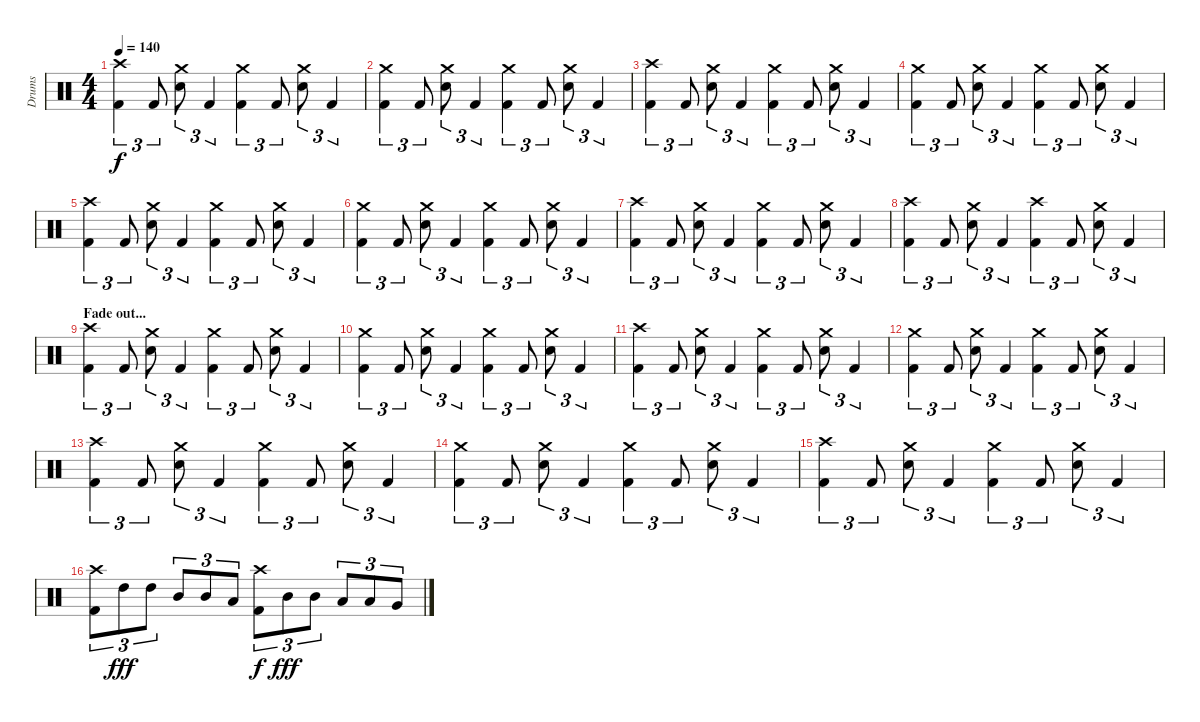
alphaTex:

\track ("Drums" "Drums") {instrument percussion}
\staff {score}
\articulation defaults
\ts (4 4)
\tempo 140
\clef neutral
\ks c
("Kick (hit) 2" "Crash high (hit)").4{tu (3 2) dy f} "Kick (hit) 2".8{tu (3 2)} ("Electric Snare (hit)" "Crash medium (hit)").8{tu (3 2)} "Kick (hit) 2".4{tu (3 2)} ("Kick (hit) 2" "Crash medium (hit)").4{tu (3 2)} "Kick (hit) 2".8{tu (3 2)} ("Electric Snare (hit)" "Crash medium (hit)").8{tu (3 2)} "Kick (hit) 2".4{tu (3 2)} |
("Kick (hit) 2" "Crash medium (hit)").4{tu (3 2)} "Kick (hit) 2".8{tu (3 2)} ("Electric Snare (hit)" "Crash medium (hit)").8{tu (3 2)} "Kick (hit) 2".4{tu (3 2)} ("Kick (hit) 2" "Crash medium (hit)").4{tu (3 2)} "Kick (hit) 2".8{tu (3 2)} ("Electric Snare (hit)" "Crash medium (hit)").8{tu (3 2)} "Kick (hit) 2".4{tu (3 2)} |
("Kick (hit) 2" "Crash high (hit)").4{tu (3 2)} "Kick (hit) 2".8{tu (3 2)} ("Electric Snare (hit)" "Crash medium (hit)").8{tu (3 2)} "Kick (hit) 2".4{tu (3 2)} ("Kick (hit) 2" "Crash medium (hit)").4{tu (3 2)} "Kick (hit) 2".8{tu (3 2)} ("Electric Snare (hit)" "Crash medium (hit)").8{tu (3 2)} "Kick (hit) 2".4{tu (3 2)} |
("Kick (hit) 2" "Crash medium (hit)").4{tu (3 2)} "Kick (hit) 2".8{tu (3 2)} ("Electric Snare (hit)" "Crash medium (hit)").8{tu (3 2)} "Kick (hit) 2".4{tu (3 2)} ("Kick (hit) 2" "Crash medium (hit)").4{tu (3 2)} "Kick (hit) 2".8{tu (3 2)} ("Electric Snare (hit)" "Crash medium (hit)").8{tu (3 2)} "Kick (hit) 2".4{tu (3 2)} |
("Kick (hit) 2" "Crash high (hit)").4{tu (3 2)} "Kick (hit) 2".8{tu (3 2)} ("Electric Snare (hit)" "Crash medium (hit)").8{tu (3 2)} "Kick (hit) 2".4{tu (3 2)} ("Kick (hit) 2" "Crash medium (hit)").4{tu (3 2)} "Kick (hit) 2".8{tu (3 2)} ("Electric Snare (hit)" "Crash medium (hit)").8{tu (3 2)} "Kick (hit) 2".4{tu (3 2)} |
("Kick (hit) 2" "Crash medium (hit)").4{tu (3 2)} "Kick (hit) 2".8{tu (3 2)} ("Electric Snare (hit)" "Crash medium (hit)").8{tu (3 2)} "Kick (hit) 2".4{tu (3 2)} ("Kick (hit) 2" "Crash medium (hit)").4{tu (3 2)} "Kick (hit) 2".8{tu (3 2)} ("Electric Snare (hit)" "Crash medium (hit)").8{tu (3 2)} "Kick (hit) 2".4{tu (3 2)} |
("Kick (hit) 2" "Crash high (hit)").4{tu (3 2)} "Kick (hit) 2".8{tu (3 2)} ("Electric Snare (hit)" "Crash medium (hit)").8{tu (3 2)} "Kick (hit) 2".4{tu (3 2)} ("Kick (hit) 2" "Crash medium (hit)").4{tu (3 2)} "Kick (hit) 2".8{tu (3 2)} ("Electric Snare (hit)" "Crash medium (hit)").8{tu (3 2)} "Kick (hit) 2".4{tu (3 2)} |
("Kick (hit) 2" "Crash high (hit)").4{tu (3 2)} "Kick (hit) 2".8{tu (3 2)} ("Electric Snare (hit)" "Crash medium (hit)").8{tu (3 2)} "Kick (hit) 2".4{tu (3 2)} ("Kick (hit) 2" "Crash high (hit)").4{tu (3 2)} "Kick (hit) 2".8{tu (3 2)} ("Electric Snare (hit)" "Crash medium (hit)").8{tu (3 2)} "Kick (hit) 2".4{tu (3 2)} |
\section ("" "Fade out...")
("Kick (hit) 2" "Crash high (hit)").4{tu (3 2)} "Kick (hit) 2".8{tu (3 2)} ("Electric Snare (hit)" "Crash medium (hit)").8{tu (3 2)} "Kick (hit) 2".4{tu (3 2)} ("Kick (hit) 2" "Crash medium (hit)").4{tu (3 2)} "Kick (hit) 2".8{tu (3 2)} ("Electric Snare (hit)" "Crash medium (hit)").8{tu (3 2)} "Kick (hit) 2".4{tu (3 2)} |
("Kick (hit) 2" "Crash medium (hit)").4{tu (3 2)} "Kick (hit) 2".8{tu (3 2)} ("Electric Snare (hit)" "Crash medium (hit)").8{tu (3 2)} "Kick (hit) 2".4{tu (3 2)} ("Kick (hit) 2" "Crash medium (hit)").4{tu (3 2)} "Kick (hit) 2".8{tu (3 2)} ("Electric Snare (hit)" "Crash medium (hit)").8{tu (3 2)} "Kick (hit) 2".4{tu (3 2)} |
("Kick (hit) 2" "Crash high (hit)").4{tu (3 2)} "Kick (hit) 2".8{tu (3 2)} ("Electric Snare (hit)" "Crash medium (hit)").8{tu (3 2)} "Kick (hit) 2".4{tu (3 2)} ("Kick (hit) 2" "Crash medium (hit)").4{tu (3 2)} "Kick (hit) 2".8{tu (3 2)} ("Electric Snare (hit)" "Crash medium (hit)").8{tu (3 2)} "Kick (hit) 2".4{tu (3 2)} |
("Kick (hit) 2" "Crash medium (hit)").4{tu (3 2)} "Kick (hit) 2".8{tu (3 2)} ("Electric Snare (hit)" "Crash medium (hit)").8{tu (3 2)} "Kick (hit) 2".4{tu (3 2)} ("Kick (hit) 2" "Crash medium (hit)").4{tu (3 2)} "Kick (hit) 2".8{tu (3 2)} ("Electric Snare (hit)" "Crash medium (hit)").8{tu (3 2)} "Kick (hit) 2".4{tu (3 2)} |
("Kick (hit) 2" "Crash high (hit)").4{tu (3 2)} "Kick (hit) 2".8{tu (3 2)} ("Electric Snare (hit)" "Crash medium (hit)").8{tu (3 2)} "Kick (hit) 2".4{tu (3 2)} ("Kick (hit) 2" "Crash medium (hit)").4{tu (3 2)} "Kick (hit) 2".8{tu (3 2)} ("Electric Snare (hit)" "Crash medium (hit)").8{tu (3 2)} "Kick (hit) 2".4{tu (3 2)} |
("Kick (hit) 2" "Crash medium (hit)").4{tu (3 2)} "Kick (hit) 2".8{tu (3 2)} ("Electric Snare (hit)" "Crash medium (hit)").8{tu (3 2)} "Kick (hit) 2".4{tu (3 2)} ("Kick (hit) 2" "Crash medium (hit)").4{tu (3 2)} "Kick (hit) 2".8{tu (3 2)} ("Electric Snare (hit)" "Crash medium (hit)").8{tu (3 2)} "Kick (hit) 2".4{tu (3 2)} |
("Kick (hit) 2" "Crash high (hit)").4{tu (3 2)} "Kick (hit) 2".8{tu (3 2)} ("Electric Snare (hit)" "Crash medium (hit)").8{tu (3 2)} "Kick (hit) 2".4{tu (3 2)} ("Kick (hit) 2" "Crash medium (hit)").4{tu (3 2)} "Kick (hit) 2".8{tu (3 2)} ("Electric Snare (hit)" "Crash medium (hit)").8{tu (3 2)} "Kick (hit) 2".4{tu (3 2)} |
("Kick (hit) 2" "Crash high (hit)").8{tu (3 2)} "High Tom (hit)".8{tu (3 2) dy fff} "High Tom (hit)".8{tu (3 2)} "Mid Tom (hit)".8{tu (3 2)} "Mid Tom (hit)".8{tu (3 2)} "Low Tom (hit)".8{tu (3 2)} ("Kick (hit) 2" "Crash high (hit)").8{tu (3 2) dy f} "Mid Tom (hit)".8{tu (3 2) dy fff} "Mid Tom (hit)".8{tu (3 2)} "Low Tom (hit)".8{tu (3 2)} "Low Tom (hit)".8{tu (3 2)} "Very Low Tom (hit)".8{tu (3 2)}
